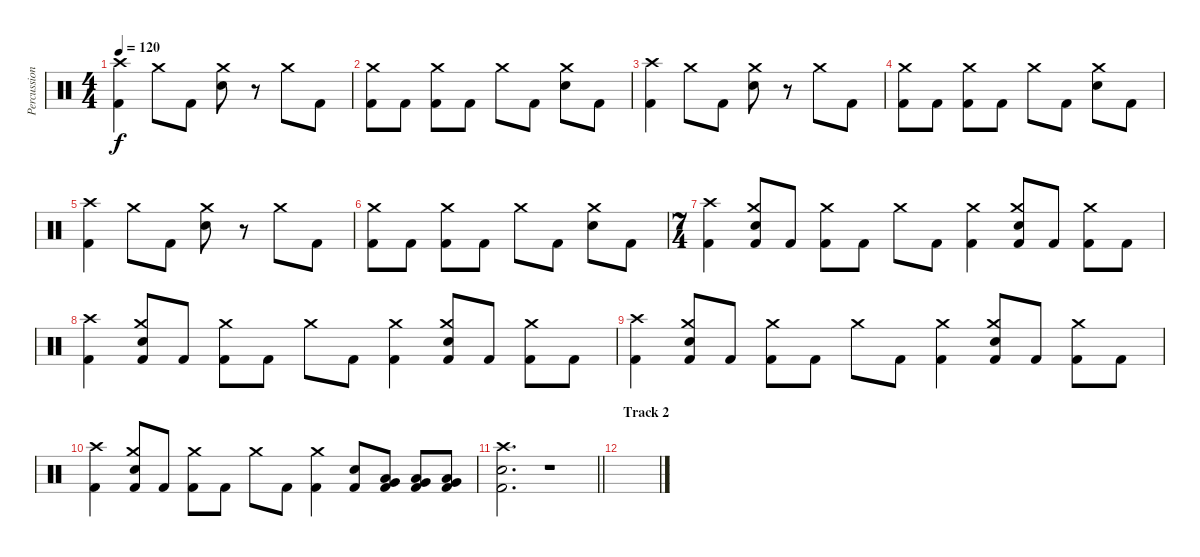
\track ("Percussion" "Percussion") {instrument percussion}
\staff {score}
\articulation defaults
\ts (4 4)
\tempo 120
\clef neutral
\ks c
("Crash high (hit)" "Kick (hit) 2").4{dy f} "Crash medium (hit)".8 "Kick (hit) 2".8 ("Crash medium (hit)" "Electric Snare (hit)").8 r.8 "Crash medium (hit)".8 "Kick (hit) 2".8 |
("Crash medium (hit)" "Kick (hit) 2").8 "Kick (hit) 2".8 ("Crash medium (hit)" "Kick (hit) 2").8 "Kick (hit) 2".8 "Crash medium (hit)".8 "Kick (hit) 2".8 ("Crash medium (hit)" "Electric Snare (hit)").8 "Kick (hit) 2".8 |
("Crash high (hit)" "Kick (hit) 2").4 "Crash medium (hit)".8 "Kick (hit) 2".8 ("Crash medium (hit)" "Electric Snare (hit)").8 r.8 "Crash medium (hit)".8 "Kick (hit) 2".8 |
("Crash medium (hit)" "Kick (hit) 2").8 "Kick (hit) 2".8 ("Crash medium (hit)" "Kick (hit) 2").8 "Kick (hit) 2".8 "Crash medium (hit)".8 "Kick (hit) 2".8 ("Crash medium (hit)" "Electric Snare (hit)").8 "Kick (hit) 2".8 |
("Crash high (hit)" "Kick (hit) 2").4 "Crash medium (hit)".8 "Kick (hit) 2".8 ("Crash medium (hit)" "Electric Snare (hit)").8 r.8 "Crash medium (hit)".8 "Kick (hit) 2".8 |
("Crash medium (hit)" "Kick (hit) 2").8 "Kick (hit) 2".8 ("Crash medium (hit)" "Kick (hit) 2").8 "Kick (hit) 2".8 "Crash medium (hit)".8 "Kick (hit) 2".8 ("Crash medium (hit)" "Electric Snare (hit)").8 "Kick (hit) 2".8 |
\ts (7 4)
("Crash high (hit)" "Kick (hit) 2").4 ("Crash medium (hit)" "Electric Snare (hit)" "Kick (hit) 2").8 "Kick (hit) 2".8 ("Crash medium (hit)" "Kick (hit) 2").8 "Kick (hit) 2".8 "Crash medium (hit)".8 "Kick (hit) 2".8 ("Crash medium (hit)" "Kick (hit) 2").4 ("Crash medium (hit)" "Electric Snare (hit)" "Kick (hit) 2").8 "Kick (hit) 2".8 ("Crash medium (hit)" "Kick (hit) 2").8 "Kick (hit) 2".8 |
("Crash high (hit)" "Kick (hit) 2").4 ("Crash medium (hit)" "Electric Snare (hit)" "Kick (hit) 2").8 "Kick (hit) 2".8 ("Crash medium (hit)" "Kick (hit) 2").8 "Kick (hit) 2".8 "Crash medium (hit)".8 "Kick (hit) 2".8 ("Crash medium (hit)" "Kick (hit) 2").4 ("Crash medium (hit)" "Electric Snare (hit)" "Kick (hit) 2").8 "Kick (hit) 2".8 ("Crash medium (hit)" "Kick (hit) 2").8 "Kick (hit) 2".8 |
("Crash high (hit)" "Kick (hit) 2").4 ("Crash medium (hit)" "Electric Snare (hit)" "Kick (hit) 2").8 "Kick (hit) 2".8 ("Crash medium (hit)" "Kick (hit) 2").8 "Kick (hit) 2".8 "Crash medium (hit)".8 "Kick (hit) 2".8 ("Crash medium (hit)" "Kick (hit) 2").4 ("Crash medium (hit)" "Electric Snare (hit)" "Kick (hit) 2").8 "Kick (hit) 2".8 ("Crash medium (hit)" "Kick (hit) 2").8 "Kick (hit) 2".8 |
("Crash high (hit)" "Kick (hit) 2").4 ("Crash medium (hit)" "Electric Snare (hit)" "Kick (hit) 2").8 "Kick (hit) 2".8 ("Crash medium (hit)" "Kick (hit) 2").8 "Kick (hit) 2".8 "Crash medium (hit)".8 "Kick (hit) 2".8 ("Crash medium (hit)" "Kick (hit) 2").4 ("Electric Snare (hit)" "Kick (hit) 2").8 ("Very Low Tom (hit)" "Low Floor Tom (hit)" "Kick (hit) 2").8 ("Very Low Tom (hit)" "Low Floor Tom (hit)" "Kick (hit) 2").8 ("Very Low Tom (hit)" "Low Floor Tom (hit)" "Kick (hit) 2").8 |
\barLineRight lightlight
("Crash high (hit)" "Electric Snare (hit)" "Kick (hit) 2").2{d} r.1 |
\section ("" "Track 2")
